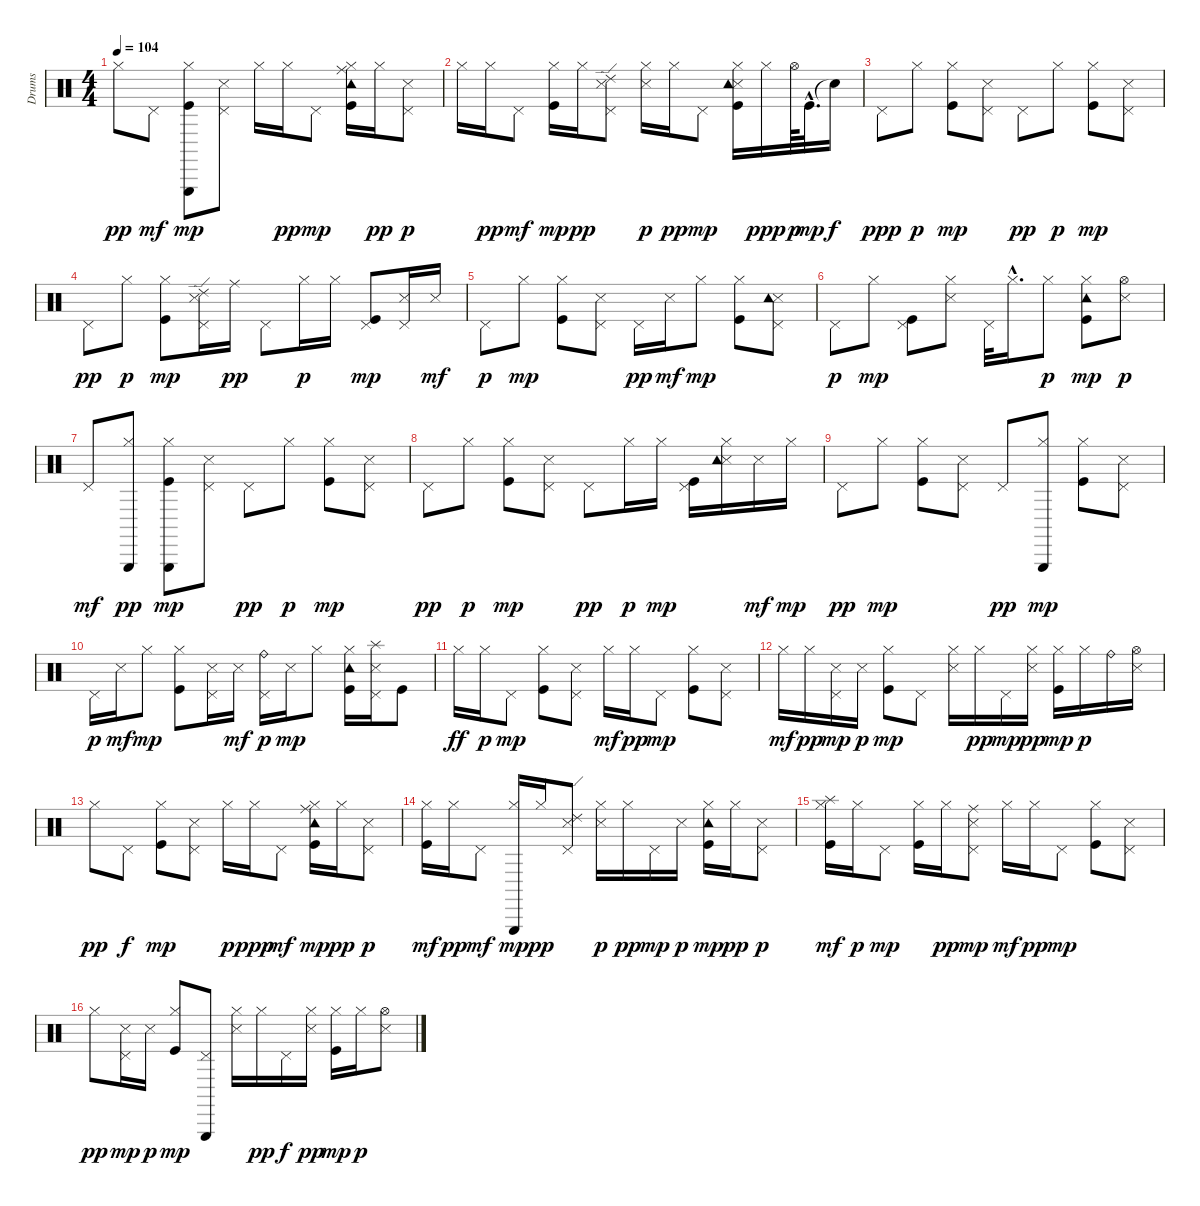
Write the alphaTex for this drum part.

\track ("Drums" "Drums") {instrument percussion}
\staff {score}
\articulation defaults
\ts (4 4)
\tempo 104
\clef neutral
\ks c "Hi-Hat (closed)".8{dy pp} "Pedal Hi-Hat (hit)".8{dy mf}
("Hi-Hat (closed)" "Triangle (hit)" "Kick (hit)").8{dy mp} ("Pedal Hi-Hat (hit)" "Snare (side stick) 3").8 "Hi-Hat (closed)".16 "Hi-Hat (closed)".16{dy pp} "Pedal Hi-Hat (hit)".8{dy mp} ("Hi-Hat (closed)" "Ride (middle)" "Tambourine (hit)" "Kick (hit)").16 "Hi-Hat (closed)".16{dy pp} ("Pedal Hi-Hat (hit)" "Snare (side stick) 3").8{dy p} |
"Hi-Hat (closed)".16 "Hi-Hat (closed)".16{dy pp} "Pedal Hi-Hat (hit)".8{dy mf} ("Hi-Hat (closed)" "Kick (hit)").16{dy mp} "Hi-Hat (closed)".16{dy pp} ("Pedal Hi-Hat (hit)" "Ride (edge) 2" "Snare (side stick) 3").8 ("Hi-Hat (closed)" "Snare (side stick) 3").16{dy p} "Hi-Hat (closed)".16{dy pp} "Pedal Hi-Hat (hit)".8{dy mp} ("Hi-Hat (closed)" "Snare (side stick) 3" "Tambourine (hit)" "Kick (hit)").16 "Hi-Hat (closed)".16{dy ppp} "Hi-Hat (open)".64{dy p} "Kick (hit)"{hac}.32{d dy mp} "Snare (hit)"{t}.16{dy f} |
"Pedal Hi-Hat (hit)".8{dy ppp} "Hi-Hat (closed)".8{dy p} ("Hi-Hat (closed)" "Kick (hit)").8{dy mp} ("Pedal Hi-Hat (hit)" "Snare (side stick) 3").8 "Pedal Hi-Hat (hit)".8{dy pp} "Hi-Hat (closed)".8{dy p} ("Hi-Hat (closed)" "Kick (hit)").8{dy mp} ("Pedal Hi-Hat (hit)" "Snare (side stick) 3").8 |
"Pedal Hi-Hat (hit)".8{dy pp} "Hi-Hat (closed)".8{dy p} ("Hi-Hat (closed)" "Kick (hit)").8{dy mp} ("Pedal Hi-Hat (hit)" "Ride (edge) 2" "Snare (side stick) 3").16 "Ride (middle)".16{dy pp} "Pedal Hi-Hat (hit)".8 "Hi-Hat (closed)".16{dy p} "Hi-Hat (closed)".16 ("Pedal Hi-Hat (hit)" "Kick (hit)").8{dy mp} ("Pedal Hi-Hat (hit)" "Snare (side stick) 3").16 "Snare (side stick) 3".16{dy mf} |
"Pedal Hi-Hat (hit)".8{dy p} "Hi-Hat (closed)".8{dy mp} ("Hi-Hat (closed)" "Kick (hit)").8 ("Pedal Hi-Hat (hit)" "Snare (side stick) 3").8 "Pedal Hi-Hat (hit)".16{dy pp} "Snare (side stick) 3".16{dy mf} "Hi-Hat (closed)".8{dy mp} ("Hi-Hat (closed)" "Kick (hit)").8 ("Pedal Hi-Hat (hit)" "Snare (side stick) 3" "Tambourine (hit)").8 |
"Pedal Hi-Hat (hit)".8{dy p} "Hi-Hat (closed)".8{dy mp} ("Pedal Hi-Hat (hit)" "Kick (hit)").8 ("Hi-Hat (closed)" "Snare (side stick) 3").8 "Pedal Hi-Hat (hit)".32 "Hi-Hat (closed)"{hac}.16{d} "Hi-Hat (closed)".8{dy p} ("Hi-Hat (closed)" "Tambourine (hit)" "Kick (hit)").8{dy mp} ("Hi-Hat (open)" "Snare (side stick) 3").8{dy p} |
"Pedal Hi-Hat (hit)".8{dy mf} ("Hi-Hat (closed)" "Triangle (hit)").8{dy pp} ("Hi-Hat (closed)" "Triangle (hit)" "Kick (hit)").8{dy mp} ("Pedal Hi-Hat (hit)" "Snare (side stick) 3").8 "Pedal Hi-Hat (hit)".8{dy pp} "Hi-Hat (closed)".8{dy p} ("Hi-Hat (closed)" "Kick (hit)").8{dy mp} ("Pedal Hi-Hat (hit)" "Snare (side stick) 3").8 |
"Pedal Hi-Hat (hit)".8{dy pp} "Hi-Hat (closed)".8{dy p} ("Hi-Hat (closed)" "Kick (hit)").8{dy mp} ("Pedal Hi-Hat (hit)" "Snare (side stick) 3").8 "Pedal Hi-Hat (hit)".8{dy pp} "Hi-Hat (closed)".16{dy p} "Hi-Hat (closed)".16{dy mp} ("Pedal Hi-Hat (hit)" "Kick (hit)").16 ("Hi-Hat (closed)" "Snare (side stick) 3" "Tambourine (hit)").16 "Snare (side stick) 3".16{dy mf} "Hi-Hat (closed)".16{dy mp} |
"Pedal Hi-Hat (hit)".8{dy pp} "Hi-Hat (closed)".8{dy mp} ("Hi-Hat (closed)" "Kick (hit)").8 ("Pedal Hi-Hat (hit)" "Snare (side stick) 3").8 "Pedal Hi-Hat (hit)".8{dy pp} ("Hi-Hat (closed)" "Triangle (hit)").8{dy mp} ("Hi-Hat (closed)" "Kick (hit)").8 ("Pedal Hi-Hat (hit)" "Snare (side stick) 3").8 |
"Pedal Hi-Hat (hit)".16{dy p} "Snare (side stick) 3".16{dy mf} "Hi-Hat (closed)".8{dy mp} ("Hi-Hat (closed)" "Kick (hit)").8 ("Pedal Hi-Hat (hit)" "Snare (side stick) 3").16 "Snare (side stick) 3".16{dy mf} ("Pedal Hi-Hat (hit)" "Ride (bell)").16{dy p} "Snare (side stick) 3".16{dy mp} "Hi-Hat (closed)".8 ("Hi-Hat (closed)" "Tambourine (hit)" "Kick (hit)").16 ("Pedal Hi-Hat (hit)" "Splash (hit)" "Snare (side stick) 3").16 "Kick (hit)".8 |
"Hi-Hat (closed)".16{dy ff} "Hi-Hat (closed)".16{dy p} "Pedal Hi-Hat (hit)".8{dy mp} ("Hi-Hat (closed)" "Kick (hit)").8 ("Pedal Hi-Hat (hit)" "Snare (side stick) 3").8 "Hi-Hat (closed)".16{dy mf} "Hi-Hat (closed)".16{dy pp} "Pedal Hi-Hat (hit)".8{dy mp} ("Hi-Hat (closed)" "Kick (hit)").8 ("Pedal Hi-Hat (hit)" "Snare (side stick) 3").8 |
"Hi-Hat (closed)".16{dy mf} "Hi-Hat (closed)".16{dy pp} ("Pedal Hi-Hat (hit)" "Snare (side stick) 3").16{dy mp} "Snare (side stick) 3".16{dy p} ("Hi-Hat (closed)" "Kick (hit)").8{dy mp} "Pedal Hi-Hat (hit)".8 ("Hi-Hat (closed)" "Snare (side stick) 3").16 "Hi-Hat (closed)".16{dy pp} "Pedal Hi-Hat (hit)".16{dy mp} ("Hi-Hat (closed)" "Snare (side stick) 3").16{dy pp} ("Hi-Hat (closed)" "Kick (hit)").16{dy mp} "Hi-Hat (closed)".16{dy p} "Ride (bell)".16 ("Hi-Hat (open)" "Snare (side stick) 3").16 |
"Hi-Hat (closed)".8{dy pp} "Pedal Hi-Hat (hit)".8{dy f} ("Hi-Hat (closed)" "Kick (hit)").8{dy mp} ("Pedal Hi-Hat (hit)" "Snare (side stick) 3").8 "Hi-Hat (closed)".16{dy p} "Hi-Hat (closed)".16{dy ppp} "Pedal Hi-Hat (hit)".8{dy mf} ("Hi-Hat (closed)" "Ride (middle)" "Tambourine (hit)" "Kick (hit)").16{dy mp} "Hi-Hat (closed)".16{dy pp} ("Pedal Hi-Hat (hit)" "Snare (side stick) 3").8{dy p} |
("Hi-Hat (closed)" "Kick (hit)").16{dy mf} "Hi-Hat (closed)".16{dy pp} "Pedal Hi-Hat (hit)".8{dy mf} ("Hi-Hat (closed)" "Triangle (hit)").16{dy mp} "Hi-Hat (closed)".16{dy pp} ("Pedal Hi-Hat (hit)" "Ride (edge) 2" "Snare (side stick) 3").8 ("Hi-Hat (closed)" "Snare (side stick) 3").16{dy p} "Hi-Hat (closed)".16{dy pp} "Pedal Hi-Hat (hit)".16{dy mp} "Snare (side stick) 3".16{dy p} ("Hi-Hat (closed)" "Tambourine (hit)" "Kick (hit)").16{dy mp} "Hi-Hat (closed)".16{dy pp} ("Pedal Hi-Hat (hit)" "Snare (side stick) 3").8{dy p} |
("Hi-Hat (closed)" "Splash (hit)" "Kick (hit)").16{dy mf} "Hi-Hat (closed)".16{dy p} "Pedal Hi-Hat (hit)".8{dy mp} ("Hi-Hat (closed)" "Kick (hit)").16 "Hi-Hat (closed)".16{dy pp} ("Pedal Hi-Hat (hit)" "Ride (middle)" "Snare (side stick) 3").8{dy mp} "Hi-Hat (closed)".16{dy mf} "Hi-Hat (closed)".16{dy pp} "Pedal Hi-Hat (hit)".8{dy mp} ("Hi-Hat (closed)" "Kick (hit)").8 ("Pedal Hi-Hat (hit)" "Snare (side stick) 3").8 |
"Hi-Hat (closed)".8{dy pp} ("Pedal Hi-Hat (hit)" "Snare (side stick) 3").16{dy mp} "Snare (side stick) 3".16{dy p} ("Hi-Hat (closed)" "Kick (hit)").8{dy mp} ("Pedal Hi-Hat (hit)" "Triangle (hit)").8 ("Hi-Hat (closed)" "Snare (side stick) 3").16 "Hi-Hat (closed)".16{dy pp} "Pedal Hi-Hat (hit)".16{dy f} ("Hi-Hat (closed)" "Snare (side stick) 3").16{dy pp} ("Hi-Hat (closed)" "Kick (hit)").16{dy mp} "Hi-Hat (closed)".16{dy p} ("Hi-Hat (open)" "Snare (side stick) 3").8
